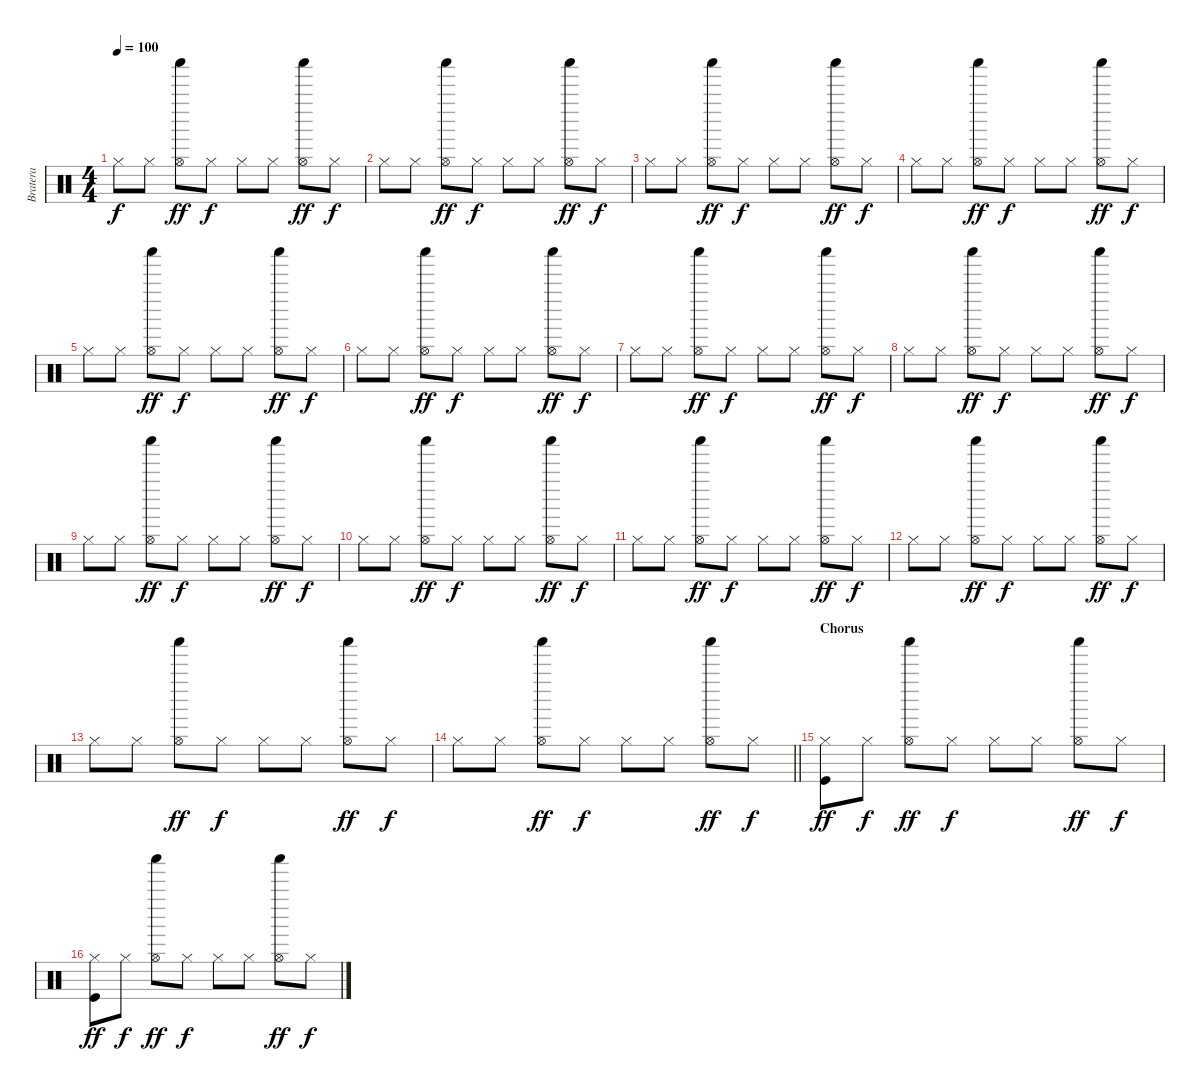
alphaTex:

\track ("Bratera" "Bratera") {instrument percussion}
\staff {score}
\articulation defaults
\ts (4 4)
\tempo 100
\clef neutral
\ks c "Hi-Hat (closed)".8{dy f} "Hi-Hat (closed)".8
("Hi-Hat (open)" "Shaker (hit)").8{dy ff} "Hi-Hat (closed)".8{dy f} "Hi-Hat (closed)".8 "Hi-Hat (closed)".8 ("Hi-Hat (open)" "Shaker (hit)").8{dy ff} "Hi-Hat (closed)".8{dy f} |
"Hi-Hat (closed)".8 "Hi-Hat (closed)".8 ("Hi-Hat (open)" "Shaker (hit)").8{dy ff} "Hi-Hat (closed)".8{dy f} "Hi-Hat (closed)".8 "Hi-Hat (closed)".8 ("Hi-Hat (open)" "Shaker (hit)").8{dy ff} "Hi-Hat (closed)".8{dy f} |
"Hi-Hat (closed)".8 "Hi-Hat (closed)".8 ("Hi-Hat (open)" "Shaker (hit)").8{dy ff} "Hi-Hat (closed)".8{dy f} "Hi-Hat (closed)".8 "Hi-Hat (closed)".8 ("Hi-Hat (open)" "Shaker (hit)").8{dy ff} "Hi-Hat (closed)".8{dy f} |
"Hi-Hat (closed)".8 "Hi-Hat (closed)".8 ("Hi-Hat (open)" "Shaker (hit)").8{dy ff} "Hi-Hat (closed)".8{dy f} "Hi-Hat (closed)".8 "Hi-Hat (closed)".8 ("Hi-Hat (open)" "Shaker (hit)").8{dy ff} "Hi-Hat (closed)".8{dy f} |
"Hi-Hat (closed)".8 "Hi-Hat (closed)".8 ("Hi-Hat (open)" "Shaker (hit)").8{dy ff} "Hi-Hat (closed)".8{dy f} "Hi-Hat (closed)".8 "Hi-Hat (closed)".8 ("Hi-Hat (open)" "Shaker (hit)").8{dy ff} "Hi-Hat (closed)".8{dy f} |
"Hi-Hat (closed)".8 "Hi-Hat (closed)".8 ("Hi-Hat (open)" "Shaker (hit)").8{dy ff} "Hi-Hat (closed)".8{dy f} "Hi-Hat (closed)".8 "Hi-Hat (closed)".8 ("Hi-Hat (open)" "Shaker (hit)").8{dy ff} "Hi-Hat (closed)".8{dy f} |
"Hi-Hat (closed)".8 "Hi-Hat (closed)".8 ("Hi-Hat (open)" "Shaker (hit)").8{dy ff} "Hi-Hat (closed)".8{dy f} "Hi-Hat (closed)".8 "Hi-Hat (closed)".8 ("Hi-Hat (open)" "Shaker (hit)").8{dy ff} "Hi-Hat (closed)".8{dy f} |
"Hi-Hat (closed)".8 "Hi-Hat (closed)".8 ("Hi-Hat (open)" "Shaker (hit)").8{dy ff} "Hi-Hat (closed)".8{dy f} "Hi-Hat (closed)".8 "Hi-Hat (closed)".8 ("Hi-Hat (open)" "Shaker (hit)").8{dy ff} "Hi-Hat (closed)".8{dy f} |
"Hi-Hat (closed)".8 "Hi-Hat (closed)".8 ("Hi-Hat (open)" "Shaker (hit)").8{dy ff} "Hi-Hat (closed)".8{dy f} "Hi-Hat (closed)".8 "Hi-Hat (closed)".8 ("Hi-Hat (open)" "Shaker (hit)").8{dy ff} "Hi-Hat (closed)".8{dy f} |
"Hi-Hat (closed)".8 "Hi-Hat (closed)".8 ("Hi-Hat (open)" "Shaker (hit)").8{dy ff} "Hi-Hat (closed)".8{dy f} "Hi-Hat (closed)".8 "Hi-Hat (closed)".8 ("Hi-Hat (open)" "Shaker (hit)").8{dy ff} "Hi-Hat (closed)".8{dy f} |
"Hi-Hat (closed)".8 "Hi-Hat (closed)".8 ("Hi-Hat (open)" "Shaker (hit)").8{dy ff} "Hi-Hat (closed)".8{dy f} "Hi-Hat (closed)".8 "Hi-Hat (closed)".8 ("Hi-Hat (open)" "Shaker (hit)").8{dy ff} "Hi-Hat (closed)".8{dy f} |
"Hi-Hat (closed)".8 "Hi-Hat (closed)".8 ("Hi-Hat (open)" "Shaker (hit)").8{dy ff} "Hi-Hat (closed)".8{dy f} "Hi-Hat (closed)".8 "Hi-Hat (closed)".8 ("Hi-Hat (open)" "Shaker (hit)").8{dy ff} "Hi-Hat (closed)".8{dy f} |
"Hi-Hat (closed)".8 "Hi-Hat (closed)".8 ("Hi-Hat (open)" "Shaker (hit)").8{dy ff} "Hi-Hat (closed)".8{dy f} "Hi-Hat (closed)".8 "Hi-Hat (closed)".8 ("Hi-Hat (open)" "Shaker (hit)").8{dy ff} "Hi-Hat (closed)".8{dy f} |
\barLineRight lightlight "Hi-Hat (closed)".8 "Hi-Hat (closed)".8
("Hi-Hat (open)" "Shaker (hit)").8{dy ff} "Hi-Hat (closed)".8{dy f} "Hi-Hat (closed)".8 "Hi-Hat (closed)".8 ("Hi-Hat (open)" "Shaker (hit)").8{dy ff} "Hi-Hat (closed)".8{dy f} |
\section ("" "Chorus")
("Hi-Hat (closed)" "Kick (hit)").8{dy ff} "Hi-Hat (closed)".8{dy f} ("Hi-Hat (open)" "Shaker (hit)").8{dy ff} "Hi-Hat (closed)".8{dy f} "Hi-Hat (closed)".8 "Hi-Hat (closed)".8 ("Hi-Hat (open)" "Shaker (hit)").8{dy ff} "Hi-Hat (closed)".8{dy f} |
("Hi-Hat (closed)" "Kick (hit)").8{dy ff} "Hi-Hat (closed)".8{dy f} ("Hi-Hat (open)" "Shaker (hit)").8{dy ff} "Hi-Hat (closed)".8{dy f} "Hi-Hat (closed)".8 "Hi-Hat (closed)".8 ("Hi-Hat (open)" "Shaker (hit)").8{dy ff} "Hi-Hat (closed)".8{dy f}
